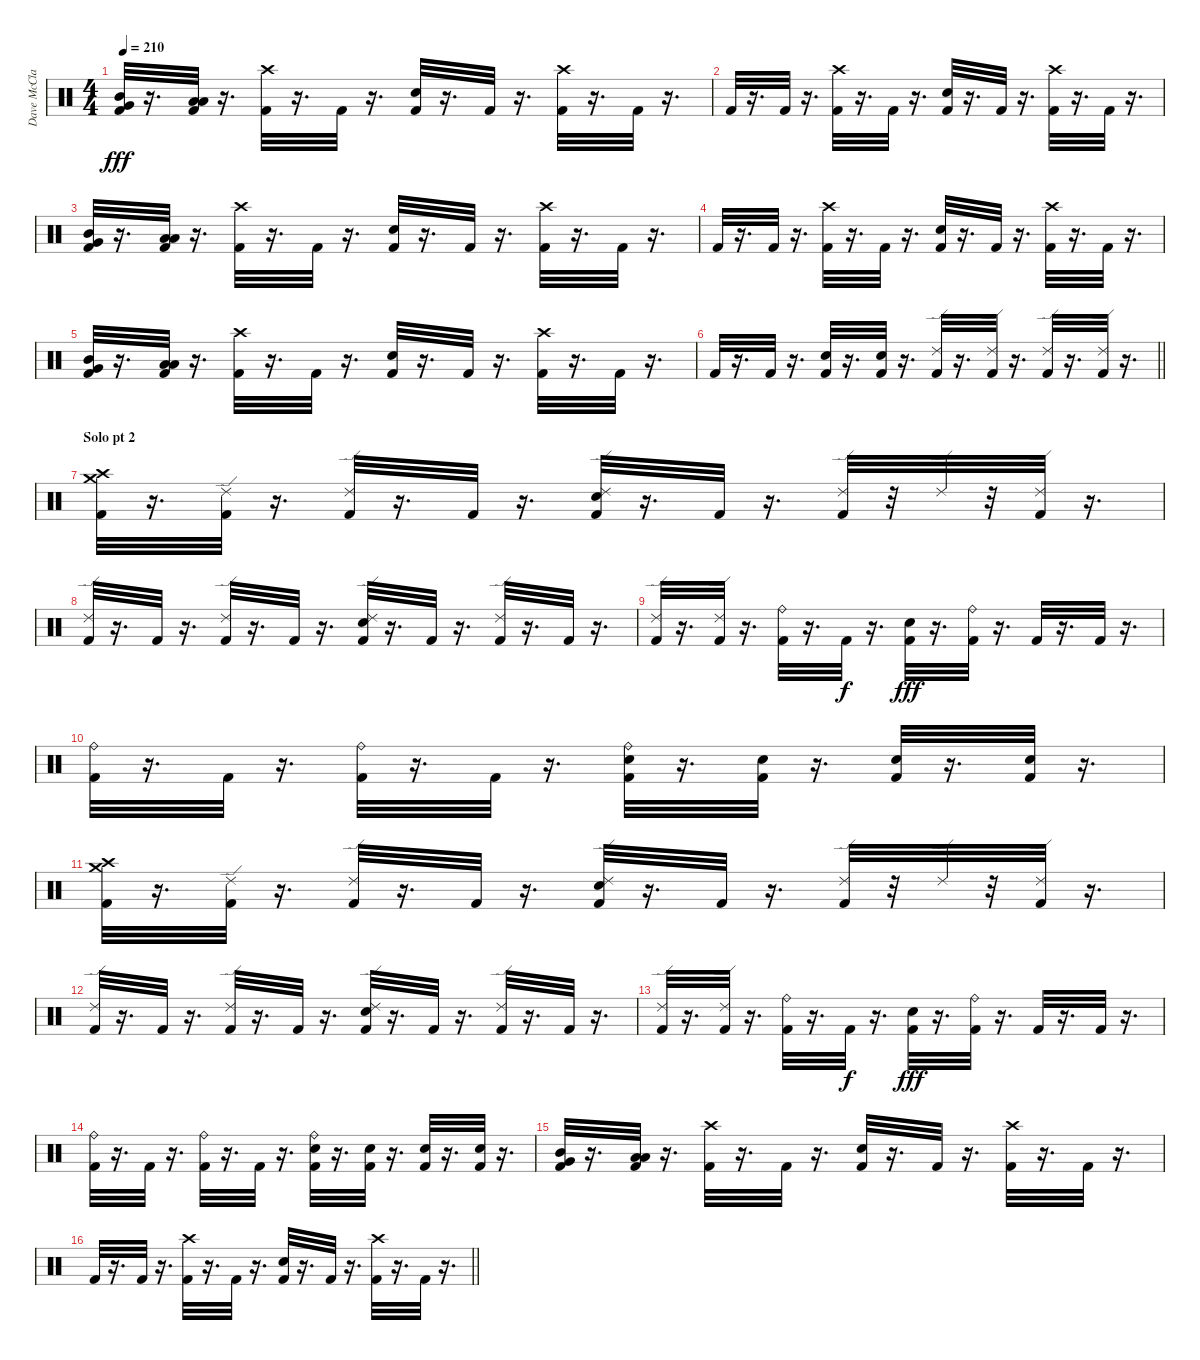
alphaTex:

\track ("Dave McClain" "Dave McCla") {instrument percussion}
\staff {score}
\articulation defaults
\ts (4 4)
\tempo 210
\clef neutral
\ks c
("Very Low Tom (hit)" "Mid Tom (hit)" "Kick (hit) 2").32{dy fff} r.16{d} ("Low Tom (hit)" "Low Floor Tom (hit)" "Kick (hit) 2").32 r.16{d} ("Kick (hit) 2" "Crash high (hit)").32 r.16{d} "Kick (hit) 2".32 r.16{d} ("Kick (hit) 2" "Snare (hit) 2").32 r.16{d} "Kick (hit) 2".32 r.16{d} ("Kick (hit) 2" "Crash high (hit)").32 r.16{d} "Kick (hit) 2".32 r.16{d} |
"Kick (hit) 2".32 r.16{d} "Kick (hit) 2".32 r.16{d} ("Kick (hit) 2" "Crash high (hit)").32 r.16{d} "Kick (hit) 2".32 r.16{d} ("Kick (hit) 2" "Snare (hit) 2").32 r.16{d} "Kick (hit) 2".32 r.16{d} ("Kick (hit) 2" "Crash high (hit)").32 r.16{d} "Kick (hit) 2".32 r.16{d} |
("Very Low Tom (hit)" "Mid Tom (hit)" "Kick (hit) 2").32 r.16{d} ("Kick (hit) 2" "Low Tom (hit)" "Low Floor Tom (hit)").32 r.16{d} ("Kick (hit) 2" "Crash high (hit)").32 r.16{d} "Kick (hit) 2".32 r.16{d} ("Kick (hit) 2" "Snare (hit) 2").32 r.16{d} "Kick (hit) 2".32 r.16{d} ("Kick (hit) 2" "Crash high (hit)").32 r.16{d} "Kick (hit) 2".32 r.16{d} |
"Kick (hit) 2".32 r.16{d} "Kick (hit) 2".32 r.16{d} ("Kick (hit) 2" "Crash high (hit)").32 r.16{d} "Kick (hit) 2".32 r.16{d} ("Kick (hit) 2" "Snare (hit) 2").32 r.16{d} "Kick (hit) 2".32 r.16{d} ("Kick (hit) 2" "Crash high (hit)").32 r.16{d} "Kick (hit) 2".32 r.16{d} |
("Very Low Tom (hit)" "Mid Tom (hit)" "Kick (hit) 2").32 r.16{d} ("Low Tom (hit)" "Low Floor Tom (hit)" "Kick (hit) 2").32 r.16{d} ("Kick (hit) 2" "Crash high (hit)").32 r.16{d} "Kick (hit) 2".32 r.16{d} ("Kick (hit) 2" "Snare (hit) 2").32 r.16{d} "Kick (hit) 2".32 r.16{d} ("Kick (hit) 2" "Crash high (hit)").32 r.16{d} "Kick (hit) 2".32 r.16{d} |
\barLineRight lightlight "Kick (hit) 2".32
r.16{d} "Kick (hit) 2".32 r.16{d} ("Snare (hit) 2" "Kick (hit) 2").32 r.16{d} ("Snare (hit) 2" "Kick (hit) 2").32 r.16{d} ("Ride (edge) 2" "Kick (hit) 2").32 r.16{d} ("Ride (edge) 2" "Kick (hit) 2").32 r.16{d} ("Ride (edge) 2" "Kick (hit) 2").32 r.16{d} ("Ride (edge) 2" "Kick (hit) 2").32 r.16{d} |
\section ("" "Solo pt 2")
("Crash medium (hit)" "Crash high (hit)" "Kick (hit) 2").32 r.16{d} ("Ride (edge) 2" "Kick (hit) 2").32 r.16{d} ("Ride (edge) 2" "Kick (hit) 2").32 r.16{d} "Kick (hit) 2".32 r.16{d} ("Ride (edge) 2" "Snare (hit) 2" "Kick (hit) 2").32 r.16{d} "Kick (hit) 2".32 r.16{d} ("Ride (edge) 2" "Kick (hit) 2").32 r.32 "Ride (edge) 2".32 r.32 ("Ride (edge) 2" "Kick (hit) 2").32 r.16{d} |
("Ride (edge) 2" "Kick (hit) 2").32 r.16{d} "Kick (hit) 2".32 r.16{d} ("Ride (edge) 2" "Kick (hit) 2").32 r.16{d} "Kick (hit) 2".32 r.16{d} ("Ride (edge) 2" "Snare (hit) 2" "Kick (hit) 2").32 r.16{d} "Kick (hit) 2".32 r.16{d} ("Ride (edge) 2" "Kick (hit) 2").32 r.16{d} "Kick (hit) 2".32 r.16{d} |
("Ride (edge) 2" "Kick (hit) 2").32 r.16{d} ("Ride (edge) 2" "Kick (hit) 2").32 r.16{d} ("Ride (bell)" "Kick (hit) 2").32 r.16{d} "Kick (hit) 2".32{dy f} r.16{d} ("Snare (hit) 2" "Kick (hit) 2").32{dy fff} r.16{d} ("Ride (bell)" "Kick (hit) 2").32 r.16{d} "Kick (hit) 2".32 r.16{d} "Kick (hit) 2".32 r.16{d} |
("Ride (bell)" "Kick (hit) 2").32 r.16{d} "Kick (hit) 2".32 r.16{d} ("Ride (bell)" "Kick (hit) 2").32 r.16{d} "Kick (hit) 2".32 r.16{d} ("Ride (bell)" "Snare (hit) 2" "Kick (hit) 2").32 r.16{d} ("Snare (hit) 2" "Kick (hit) 2").32 r.16{d} ("Snare (hit) 2" "Kick (hit) 2").32 r.16{d} ("Snare (hit) 2" "Kick (hit) 2").32 r.16{d} |
("Crash medium (hit)" "Crash high (hit)" "Kick (hit) 2").32 r.16{d} ("Ride (edge) 2" "Kick (hit) 2").32 r.16{d} ("Ride (edge) 2" "Kick (hit) 2").32 r.16{d} "Kick (hit) 2".32 r.16{d} ("Ride (edge) 2" "Snare (hit) 2" "Kick (hit) 2").32 r.16{d} "Kick (hit) 2".32 r.16{d} ("Ride (edge) 2" "Kick (hit) 2").32 r.32 "Ride (edge) 2".32 r.32 ("Ride (edge) 2" "Kick (hit) 2").32 r.16{d} |
("Ride (edge) 2" "Kick (hit) 2").32 r.16{d} "Kick (hit) 2".32 r.16{d} ("Ride (edge) 2" "Kick (hit) 2").32 r.16{d} "Kick (hit) 2".32 r.16{d} ("Ride (edge) 2" "Snare (hit) 2" "Kick (hit) 2").32 r.16{d} "Kick (hit) 2".32 r.16{d} ("Ride (edge) 2" "Kick (hit) 2").32 r.16{d} "Kick (hit) 2".32 r.16{d} |
("Ride (edge) 2" "Kick (hit) 2").32 r.16{d} ("Ride (edge) 2" "Kick (hit) 2").32 r.16{d} ("Ride (bell)" "Kick (hit) 2").32 r.16{d} "Kick (hit) 2".32{dy f} r.16{d} ("Snare (hit) 2" "Kick (hit) 2").32{dy fff} r.16{d} ("Ride (bell)" "Kick (hit) 2").32 r.16{d} "Kick (hit) 2".32 r.16{d} "Kick (hit) 2".32 r.16{d} |
("Ride (bell)" "Kick (hit) 2").32 r.16{d} "Kick (hit) 2".32 r.16{d} ("Ride (bell)" "Kick (hit) 2").32 r.16{d} "Kick (hit) 2".32 r.16{d} ("Ride (bell)" "Snare (hit) 2" "Kick (hit) 2").32 r.16{d} ("Snare (hit) 2" "Kick (hit) 2").32 r.16{d} ("Snare (hit) 2" "Kick (hit) 2").32 r.16{d} ("Snare (hit) 2" "Kick (hit) 2").32 r.16{d} |
("Very Low Tom (hit)" "Mid Tom (hit)" "Kick (hit) 2").32 r.16{d} ("Kick (hit) 2" "Low Tom (hit)" "Low Floor Tom (hit)").32 r.16{d} ("Kick (hit) 2" "Crash high (hit)").32 r.16{d} "Kick (hit) 2".32 r.16{d} ("Kick (hit) 2" "Snare (hit) 2").32 r.16{d} "Kick (hit) 2".32 r.16{d} ("Kick (hit) 2" "Crash high (hit)").32 r.16{d} "Kick (hit) 2".32 r.16{d} |
\barLineRight lightlight "Kick (hit) 2".32
r.16{d} "Kick (hit) 2".32 r.16{d} ("Kick (hit) 2" "Crash high (hit)").32 r.16{d} "Kick (hit) 2".32 r.16{d} ("Kick (hit) 2" "Snare (hit) 2").32 r.16{d} "Kick (hit) 2".32 r.16{d} ("Kick (hit) 2" "Crash high (hit)").32 r.16{d} "Kick (hit) 2".32 r.16{d}
